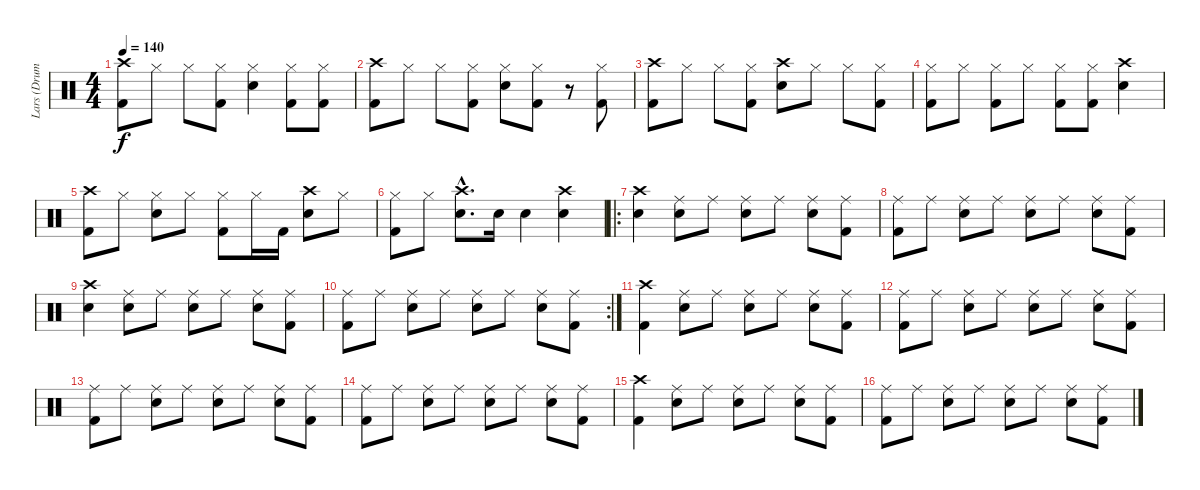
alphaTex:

\track ("Lars (Drums)" "Lars (Drum") {instrument percussion}
\staff {score}
\articulation defaults
\ts (4 4)
\tempo 140
\clef neutral
\ks c
("Crash high (hit)" "Kick (hit) 2").8{dy f} "Hi-Hat (closed)".8 "Hi-Hat (closed)".8 ("Hi-Hat (closed)" "Kick (hit) 2").8 ("Hi-Hat (closed)" "Snare (hit) 2").4 ("Hi-Hat (closed)" "Kick (hit) 2").8 ("Hi-Hat (closed)" "Kick (hit) 2").8 |
("Crash high (hit)" "Kick (hit) 2").8 "Hi-Hat (closed)".8 "Hi-Hat (closed)".8 ("Hi-Hat (closed)" "Kick (hit) 2").8 ("Hi-Hat (closed)" "Snare (hit) 2").8 ("Hi-Hat (closed)" "Kick (hit) 2").8 r.8 ("Hi-Hat (closed)" "Kick (hit) 2").8 |
("Crash high (hit)" "Kick (hit) 2").8 "Hi-Hat (closed)".8 "Hi-Hat (closed)".8 ("Hi-Hat (closed)" "Kick (hit) 2").8 ("Crash high (hit)" "Snare (hit) 2").8 "Hi-Hat (closed)".8 "Hi-Hat (closed)".8 ("Hi-Hat (closed)" "Kick (hit) 2").8 |
("Hi-Hat (closed)" "Kick (hit) 2").8 "Hi-Hat (closed)".8 ("Hi-Hat (closed)" "Kick (hit) 2").8 "Hi-Hat (closed)".8 ("Hi-Hat (closed)" "Kick (hit) 2").8 ("Hi-Hat (closed)" "Kick (hit) 2").8 ("Crash high (hit)" "Snare (hit) 2").4 |
("Crash high (hit)" "Kick (hit) 2").8 "Hi-Hat (closed)".8 ("Hi-Hat (closed)" "Snare (hit) 2").8 "Hi-Hat (closed)".8 ("Hi-Hat (closed)" "Kick (hit) 2").8 "Hi-Hat (closed)".16 "Kick (hit) 2".16 ("Crash high (hit)" "Snare (hit) 2").8 "Hi-Hat (closed)".8 |
("Hi-Hat (closed)" "Kick (hit) 2").8 "Hi-Hat (closed)".8 ("Crash high (hit)"{hac} "Snare (hit) 2"{hac}).8{d} "Snare (hit) 2".16 "Snare (hit) 2".4 ("Crash high (hit)" "Snare (hit) 2").4 |
\ro
("Crash high (hit)" "Snare (hit) 2").4 ("Ride (middle)" "Snare (hit) 2").8 "Ride (middle)".8 ("Ride (middle)" "Snare (hit) 2").8 "Ride (middle)".8 ("Ride (middle)" "Snare (hit) 2").8 ("Ride (middle)" "Kick (hit) 2").8 |
("Ride (middle)" "Kick (hit) 2").8 "Ride (middle)".8 ("Ride (middle)" "Snare (hit) 2").8 "Ride (middle)".8 ("Ride (middle)" "Snare (hit) 2").8 "Ride (middle)".8 ("Ride (middle)" "Snare (hit) 2").8 ("Ride (middle)" "Kick (hit) 2").8 |
("Crash high (hit)" "Snare (hit) 2").4 ("Ride (middle)" "Snare (hit) 2").8 "Ride (middle)".8 ("Ride (middle)" "Snare (hit) 2").8 "Ride (middle)".8 ("Ride (middle)" "Snare (hit) 2").8 ("Ride (middle)" "Kick (hit) 2").8 |
\rc 2
("Ride (middle)" "Kick (hit) 2").8 "Ride (middle)".8 ("Ride (middle)" "Snare (hit) 2").8 "Ride (middle)".8 ("Ride (middle)" "Snare (hit) 2").8 "Ride (middle)".8 ("Ride (middle)" "Snare (hit) 2").8 ("Ride (middle)" "Kick (hit) 2").8 |
("Crash high (hit)" "Kick (hit) 2").4 ("Ride (middle)" "Snare (hit) 2").8 "Ride (middle)".8 ("Ride (middle)" "Snare (hit) 2").8 "Ride (middle)".8 ("Ride (middle)" "Snare (hit) 2").8 ("Ride (middle)" "Kick (hit) 2").8 |
("Ride (middle)" "Kick (hit) 2").8 "Ride (middle)".8 ("Ride (middle)" "Snare (hit) 2").8 "Ride (middle)".8 ("Ride (middle)" "Snare (hit) 2").8 "Ride (middle)".8 ("Ride (middle)" "Snare (hit) 2").8 ("Ride (middle)" "Kick (hit) 2").8 |
("Ride (middle)" "Kick (hit) 2").8 "Ride (middle)".8 ("Ride (middle)" "Snare (hit) 2").8 "Ride (middle)".8 ("Ride (middle)" "Snare (hit) 2").8 "Ride (middle)".8 ("Ride (middle)" "Snare (hit) 2").8 ("Ride (middle)" "Kick (hit) 2").8 |
("Ride (middle)" "Kick (hit) 2").8 "Ride (middle)".8 ("Ride (middle)" "Snare (hit) 2").8 "Ride (middle)".8 ("Ride (middle)" "Snare (hit) 2").8 "Ride (middle)".8 ("Ride (middle)" "Snare (hit) 2").8 ("Ride (middle)" "Kick (hit) 2").8 |
("Crash high (hit)" "Kick (hit) 2").4 ("Ride (middle)" "Snare (hit) 2").8 "Ride (middle)".8 ("Ride (middle)" "Snare (hit) 2").8 "Ride (middle)".8 ("Ride (middle)" "Snare (hit) 2").8 ("Ride (middle)" "Kick (hit) 2").8 |
("Ride (middle)" "Kick (hit) 2").8 "Ride (middle)".8 ("Ride (middle)" "Snare (hit) 2").8 "Ride (middle)".8 ("Ride (middle)" "Snare (hit) 2").8 "Ride (middle)".8 ("Ride (middle)" "Snare (hit) 2").8 ("Ride (middle)" "Kick (hit) 2").8
